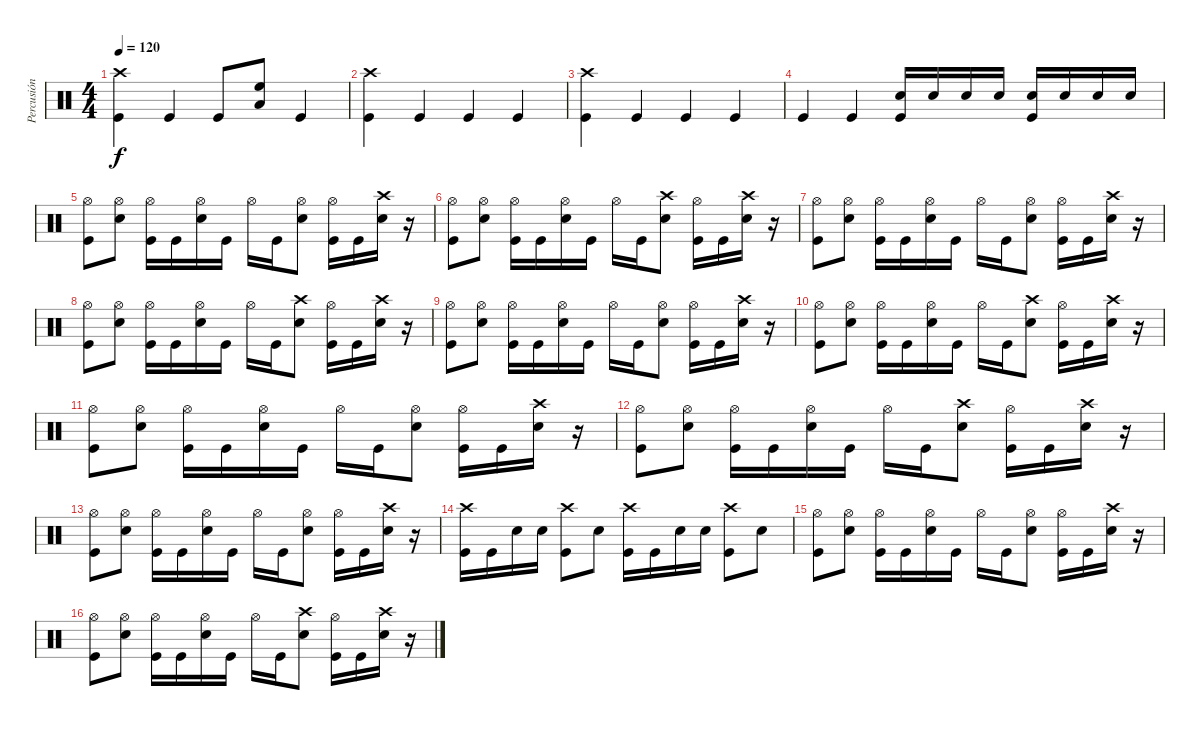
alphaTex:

\track ("Percusión" "Percusión") {instrument percussion}
\staff {score}
\articulation defaults
\ts (4 4)
\tempo 120
\clef neutral
\ks c
("Crash high (hit)" "Kick (hit)").4{dy f} "Kick (hit)".4 "Kick (hit)".8 ("High Floor Tom (hit)" "Low Floor Tom (hit)").8 "Kick (hit)".4 |
("Crash high (hit)" "Kick (hit)").4 "Kick (hit)".4 "Kick (hit)".4 "Kick (hit)".4 |
("Crash high (hit)" "Kick (hit)").4 "Kick (hit)".4 "Kick (hit)".4 "Kick (hit)".4 |
"Kick (hit)".4 "Kick (hit)".4 ("Snare (hit) 2" "Kick (hit)").16 "Snare (hit) 2".16 "Snare (hit) 2".16 "Snare (hit) 2".16 ("Snare (hit) 2" "Kick (hit)").16 "Snare (hit) 2".16 "Snare (hit) 2".16 "Snare (hit) 2".16 |
("Hi-Hat (open)" "Kick (hit)").8 ("Hi-Hat (open)" "Snare (hit) 2").8 ("Hi-Hat (open)" "Kick (hit)").16 "Kick (hit)".16 ("Hi-Hat (open)" "Snare (hit) 2").16 "Kick (hit)".16 "Hi-Hat (open)".16 "Kick (hit)".16 ("Hi-Hat (open)" "Snare (hit) 2").8 ("Hi-Hat (open)" "Kick (hit)").16 "Kick (hit)".16 ("Crash high (hit)" "Snare (hit) 2").16 r.16 |
("Hi-Hat (open)" "Kick (hit)").8 ("Hi-Hat (open)" "Snare (hit) 2").8 ("Hi-Hat (open)" "Kick (hit)").16 "Kick (hit)".16 ("Hi-Hat (open)" "Snare (hit) 2").16 "Kick (hit)".16 "Hi-Hat (open)".16 "Kick (hit)".16 ("Crash high (hit)" "Snare (hit) 2").8 ("Hi-Hat (open)" "Kick (hit)").16 "Kick (hit)".16 ("Crash high (hit)" "Snare (hit) 2").16 r.16 |
("Hi-Hat (open)" "Kick (hit)").8 ("Hi-Hat (open)" "Snare (hit) 2").8 ("Hi-Hat (open)" "Kick (hit)").16 "Kick (hit)".16 ("Hi-Hat (open)" "Snare (hit) 2").16 "Kick (hit)".16 "Hi-Hat (open)".16 "Kick (hit)".16 ("Hi-Hat (open)" "Snare (hit) 2").8 ("Hi-Hat (open)" "Kick (hit)").16 "Kick (hit)".16 ("Crash high (hit)" "Snare (hit) 2").16 r.16 |
("Hi-Hat (open)" "Kick (hit)").8 ("Hi-Hat (open)" "Snare (hit) 2").8 ("Hi-Hat (open)" "Kick (hit)").16 "Kick (hit)".16 ("Hi-Hat (open)" "Snare (hit) 2").16 "Kick (hit)".16 "Hi-Hat (open)".16 "Kick (hit)".16 ("Crash high (hit)" "Snare (hit) 2").8 ("Hi-Hat (open)" "Kick (hit)").16 "Kick (hit)".16 ("Crash high (hit)" "Snare (hit) 2").16 r.16 |
("Hi-Hat (open)" "Kick (hit)").8 ("Hi-Hat (open)" "Snare (hit) 2").8 ("Hi-Hat (open)" "Kick (hit)").16 "Kick (hit)".16 ("Hi-Hat (open)" "Snare (hit) 2").16 "Kick (hit)".16 "Hi-Hat (open)".16 "Kick (hit)".16 ("Hi-Hat (open)" "Snare (hit) 2").8 ("Hi-Hat (open)" "Kick (hit)").16 "Kick (hit)".16 ("Crash high (hit)" "Snare (hit) 2").16 r.16 |
("Hi-Hat (open)" "Kick (hit)").8 ("Hi-Hat (open)" "Snare (hit) 2").8 ("Hi-Hat (open)" "Kick (hit)").16 "Kick (hit)".16 ("Hi-Hat (open)" "Snare (hit) 2").16 "Kick (hit)".16 "Hi-Hat (open)".16 "Kick (hit)".16 ("Crash high (hit)" "Snare (hit) 2").8 ("Hi-Hat (open)" "Kick (hit)").16 "Kick (hit)".16 ("Crash high (hit)" "Snare (hit) 2").16 r.16 |
("Hi-Hat (open)" "Kick (hit)").8 ("Hi-Hat (open)" "Snare (hit) 2").8 ("Hi-Hat (open)" "Kick (hit)").16 "Kick (hit)".16 ("Hi-Hat (open)" "Snare (hit) 2").16 "Kick (hit)".16 "Hi-Hat (open)".16 "Kick (hit)".16 ("Hi-Hat (open)" "Snare (hit) 2").8 ("Hi-Hat (open)" "Kick (hit)").16 "Kick (hit)".16 ("Crash high (hit)" "Snare (hit) 2").16 r.16 |
("Hi-Hat (open)" "Kick (hit)").8 ("Hi-Hat (open)" "Snare (hit) 2").8 ("Hi-Hat (open)" "Kick (hit)").16 "Kick (hit)".16 ("Hi-Hat (open)" "Snare (hit) 2").16 "Kick (hit)".16 "Hi-Hat (open)".16 "Kick (hit)".16 ("Crash high (hit)" "Snare (hit) 2").8 ("Hi-Hat (open)" "Kick (hit)").16 "Kick (hit)".16 ("Crash high (hit)" "Snare (hit) 2").16 r.16 |
("Hi-Hat (open)" "Kick (hit)").8 ("Hi-Hat (open)" "Snare (hit) 2").8 ("Hi-Hat (open)" "Kick (hit)").16 "Kick (hit)".16 ("Hi-Hat (open)" "Snare (hit) 2").16 "Kick (hit)".16 "Hi-Hat (open)".16 "Kick (hit)".16 ("Hi-Hat (open)" "Snare (hit) 2").8 ("Hi-Hat (open)" "Kick (hit)").16 "Kick (hit)".16 ("Crash high (hit)" "Snare (hit) 2").16 r.16 |
("Crash high (hit)" "Kick (hit)").16 "Kick (hit)".16 "Snare (hit) 2".16 "Snare (hit) 2".16 ("Crash high (hit)" "Kick (hit)").8 "Snare (hit) 2".8 ("Crash high (hit)" "Kick (hit)").16 "Kick (hit)".16 "Snare (hit) 2".16 "Snare (hit) 2".16 ("Crash high (hit)" "Kick (hit)").8 "Snare (hit) 2".8 |
("Hi-Hat (open)" "Kick (hit)").8 ("Hi-Hat (open)" "Snare (hit) 2").8 ("Hi-Hat (open)" "Kick (hit)").16 "Kick (hit)".16 ("Hi-Hat (open)" "Snare (hit) 2").16 "Kick (hit)".16 "Hi-Hat (open)".16 "Kick (hit)".16 ("Hi-Hat (open)" "Snare (hit) 2").8 ("Hi-Hat (open)" "Kick (hit)").16 "Kick (hit)".16 ("Crash high (hit)" "Snare (hit) 2").16 r.16 |
("Hi-Hat (open)" "Kick (hit)").8 ("Hi-Hat (open)" "Snare (hit) 2").8 ("Hi-Hat (open)" "Kick (hit)").16 "Kick (hit)".16 ("Hi-Hat (open)" "Snare (hit) 2").16 "Kick (hit)".16 "Hi-Hat (open)".16 "Kick (hit)".16 ("Crash high (hit)" "Snare (hit) 2").8 ("Hi-Hat (open)" "Kick (hit)").16 "Kick (hit)".16 ("Crash high (hit)" "Snare (hit) 2").16 r.16
